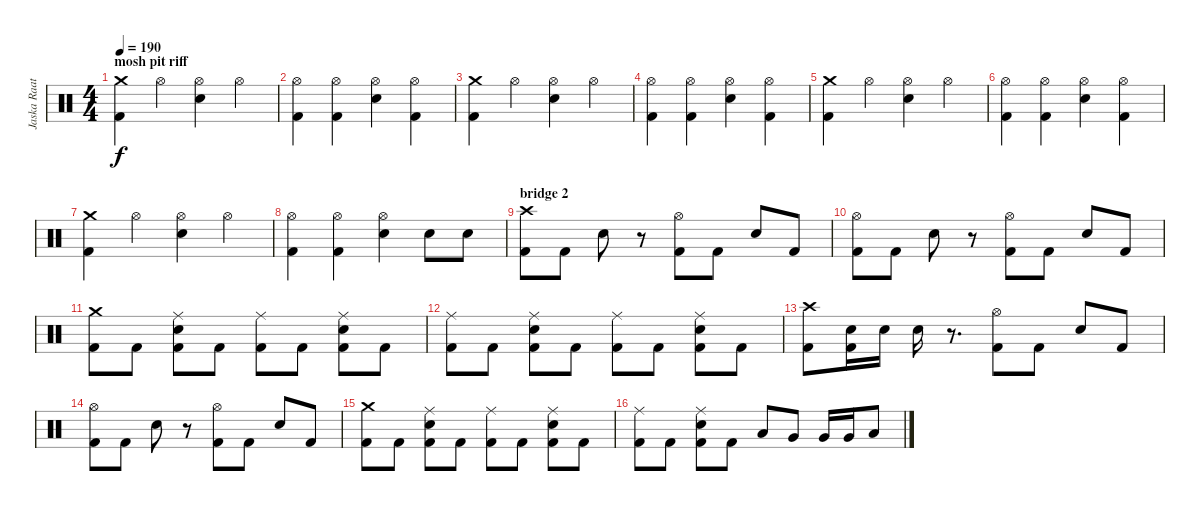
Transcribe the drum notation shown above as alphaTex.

\track ("Jaska Raatikainen" "Jaska Raat") {instrument percussion}
\staff {score}
\articulation defaults
\ts (4 4)
\section ("" "mosh pit riff")
\tempo 190
\clef neutral
\ks c
("Crash medium (hit)" "Kick (hit) 2").4{dy f} "Hi-Hat (open)".4 ("Hi-Hat (open)" "Snare (hit) 2").4 "Hi-Hat (open)".4 |
("Hi-Hat (open)" "Kick (hit) 2").4 ("Hi-Hat (open)" "Kick (hit) 2").4 ("Hi-Hat (open)" "Snare (hit) 2").4 ("Hi-Hat (open)" "Kick (hit) 2").4 |
("Crash medium (hit)" "Kick (hit) 2").4 "Hi-Hat (open)".4 ("Hi-Hat (open)" "Snare (hit) 2").4 "Hi-Hat (open)".4 |
("Hi-Hat (open)" "Kick (hit) 2").4 ("Hi-Hat (open)" "Kick (hit) 2").4 ("Hi-Hat (open)" "Snare (hit) 2").4 ("Hi-Hat (open)" "Kick (hit) 2").4 |
("Crash medium (hit)" "Kick (hit) 2").4 "Hi-Hat (open)".4 ("Hi-Hat (open)" "Snare (hit) 2").4 "Hi-Hat (open)".4 |
("Hi-Hat (open)" "Kick (hit) 2").4 ("Hi-Hat (open)" "Kick (hit) 2").4 ("Hi-Hat (open)" "Snare (hit) 2").4 ("Hi-Hat (open)" "Kick (hit) 2").4 |
("Crash medium (hit)" "Kick (hit) 2").4 "Hi-Hat (open)".4 ("Hi-Hat (open)" "Snare (hit) 2").4 "Hi-Hat (open)".4 |
("Hi-Hat (open)" "Kick (hit) 2").4 ("Hi-Hat (open)" "Kick (hit) 2").4 ("Hi-Hat (open)" "Snare (hit) 2").4 "Snare (hit) 2".8 "Snare (hit) 2".8 |
\section ("" "bridge 2")
("Crash high (hit)" "Kick (hit) 2").8 "Kick (hit) 2".8 "Snare (hit) 2".8 r.8 ("Hi-Hat (open)" "Kick (hit) 2").8 "Kick (hit) 2".8 "Snare (hit) 2".8 "Kick (hit) 2".8 |
("Hi-Hat (open)" "Kick (hit) 2").8 "Kick (hit) 2".8 "Snare (hit) 2".8 r.8 ("Hi-Hat (open)" "Kick (hit) 2").8 "Kick (hit) 2".8 "Snare (hit) 2".8 "Kick (hit) 2".8 |
("Crash medium (hit)" "Kick (hit) 2").8 "Kick (hit) 2".8 ("Ride (middle)" "Snare (hit) 2" "Kick (hit) 2").8 "Kick (hit) 2".8 ("Ride (middle)" "Kick (hit) 2").8 "Kick (hit) 2".8 ("Ride (middle)" "Snare (hit) 2" "Kick (hit) 2").8 "Kick (hit) 2".8 |
("Ride (middle)" "Kick (hit) 2").8 "Kick (hit) 2".8 ("Ride (middle)" "Snare (hit) 2" "Kick (hit) 2").8 "Kick (hit) 2".8 ("Ride (middle)" "Kick (hit) 2").8 "Kick (hit) 2".8 ("Ride (middle)" "Snare (hit) 2" "Kick (hit) 2").8 "Kick (hit) 2".8 |
("Crash high (hit)" "Kick (hit) 2").8 ("Snare (hit) 2" "Kick (hit) 2").16 "Snare (hit) 2".16 "Snare (hit) 2".16 r.8{d} ("Hi-Hat (open)" "Kick (hit) 2").8 "Kick (hit) 2".8 "Snare (hit) 2".8 "Kick (hit) 2".8 |
("Hi-Hat (open)" "Kick (hit) 2").8 "Kick (hit) 2".8 "Snare (hit) 2".8 r.8 ("Hi-Hat (open)" "Kick (hit) 2").8 "Kick (hit) 2".8 "Snare (hit) 2".8 "Kick (hit) 2".8 |
("Crash medium (hit)" "Kick (hit) 2").8 "Kick (hit) 2".8 ("Ride (middle)" "Snare (hit) 2" "Kick (hit) 2").8 "Kick (hit) 2".8 ("Ride (middle)" "Kick (hit) 2").8 "Kick (hit) 2".8 ("Ride (middle)" "Snare (hit) 2" "Kick (hit) 2").8 "Kick (hit) 2".8 |
("Ride (middle)" "Kick (hit) 2").8 "Kick (hit) 2".8 ("Ride (middle)" "Snare (hit) 2" "Kick (hit) 2").8 "Kick (hit) 2".8 "Low Tom (hit)".8 "Very Low Tom (hit)".8 "Very Low Tom (hit)".16 "Very Low Tom (hit)".16 "Low Floor Tom (hit)".8
